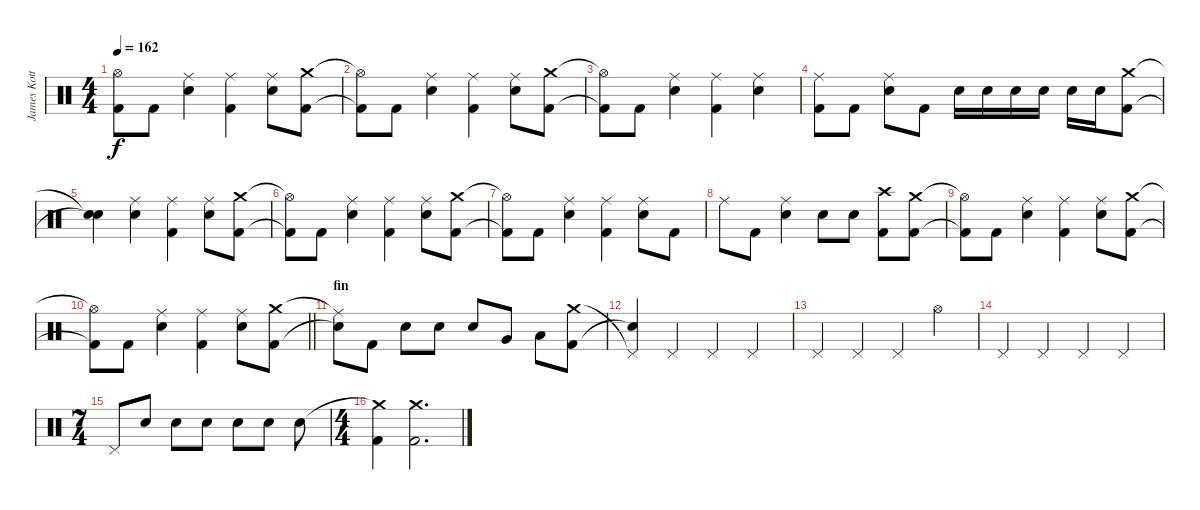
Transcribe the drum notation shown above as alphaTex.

\track ("James Kottak" "James Kott") {instrument percussion}
\staff {score}
\articulation defaults
\ts (4 4)
\tempo 162
\clef neutral
\ks c
("Hi-Hat (open)"{t} "Kick (hit) 2"{t}).8{dy f} "Kick (hit) 2".8 ("Ride (middle)" "Snare (hit) 2").4 ("Ride (middle)" "Kick (hit) 2").4 ("Ride (middle)" "Snare (hit) 2").8 ("Crash medium (hit)" "Kick (hit) 2").8 |
("Hi-Hat (open)"{t} "Kick (hit) 2"{t}).8 "Kick (hit) 2".8 ("Ride (middle)" "Snare (hit) 2").4 ("Ride (middle)" "Kick (hit) 2").4 ("Ride (middle)" "Snare (hit) 2").8 ("Crash medium (hit)" "Kick (hit) 2").8 |
("Hi-Hat (open)"{t} "Kick (hit) 2"{t}).8 "Kick (hit) 2".8 ("Ride (middle)" "Snare (hit) 2").4 ("Ride (middle)" "Kick (hit) 2").4 ("Ride (middle)" "Snare (hit) 2").4 |
("Ride (middle)" "Kick (hit) 2").8 "Kick (hit) 2".8 ("Ride (middle)" "Snare (hit) 2").8 "Kick (hit) 2".8 "Snare (hit) 2".16 "Snare (hit) 2".16 "Snare (hit) 2".16 "Snare (hit) 2".16 "Snare (hit) 2".16 "Snare (hit) 2".16 ("Kick (hit) 2" "Crash medium (hit)").8 |
("Snare (hit)"{t} "Snare (hit)"{t}).4 ("Ride (middle)" "Snare (hit) 2").4 ("Ride (middle)" "Kick (hit) 2").4 ("Ride (middle)" "Snare (hit) 2").8 ("Crash medium (hit)" "Kick (hit) 2").8 |
("Hi-Hat (open)"{t} "Kick (hit) 2"{t}).8 "Kick (hit) 2".8 ("Ride (middle)" "Snare (hit) 2").4 ("Ride (middle)" "Kick (hit) 2").4 ("Ride (middle)" "Snare (hit) 2").8 ("Crash medium (hit)" "Kick (hit) 2").8 |
("Hi-Hat (open)"{t} "Kick (hit) 2"{t}).8 "Kick (hit) 2".8 ("Ride (middle)" "Snare (hit) 2").4 ("Ride (middle)" "Kick (hit) 2").4 ("Ride (middle)" "Snare (hit) 2").8 "Kick (hit) 2".8 |
"Ride (middle)".8 "Kick (hit) 2".8 ("Ride (middle)" "Snare (hit) 2").4 "Snare (hit) 2".8 "Snare (hit) 2".8 ("Kick (hit) 2" "Crash high (hit)").8 ("Crash medium (hit)" "Kick (hit) 2").8 |
("Hi-Hat (open)"{t} "Kick (hit) 2"{t}).8 "Kick (hit) 2".8 ("Ride (middle)" "Snare (hit) 2").4 ("Ride (middle)" "Kick (hit) 2").4 ("Ride (middle)" "Snare (hit) 2").8 ("Crash medium (hit)" "Kick (hit) 2").8 |
\barLineRight lightlight
("Hi-Hat (open)"{t} "Kick (hit) 2"{t}).8 "Kick (hit) 2".8 ("Ride (middle)" "Snare (hit) 2").4 ("Ride (middle)" "Kick (hit) 2").4 ("Ride (middle)" "Snare (hit) 2").8 ("Crash medium (hit)" "Kick (hit) 2").8 |
\section ("" "fin")
("Ride (middle)"{t} "Snare (hit)"{t}).8 "Kick (hit) 2".8 "Snare (hit) 2".8{bd 240} "Snare (hit) 2".8 "Snare (hit) 2".8 "Very Low Tom (hit)".8 "Low Floor Tom (hit)".8 ("Kick (hit) 2" "Crash medium (hit)").8 |
("Snare (hit)"{t} "Pedal Hi-Hat (hit)"{t}).4 "Pedal Hi-Hat (hit)".4 "Pedal Hi-Hat (hit)".4 "Pedal Hi-Hat (hit)".4 |
"Pedal Hi-Hat (hit)".4 "Pedal Hi-Hat (hit)".4 "Pedal Hi-Hat (hit)".4 "Hi-Hat (open)".4 |
"Pedal Hi-Hat (hit)".4 "Pedal Hi-Hat (hit)".4 "Pedal Hi-Hat (hit)".4 "Pedal Hi-Hat (hit)".4 |
\ts (7 4)
"Pedal Hi-Hat (hit)".8 "Snare (hit) 2".8 "Snare (hit) 2".8 "Snare (hit) 2".8 "Snare (hit) 2".8 "Snare (hit) 2".8 "Snare (hit) 2".8 |
\ts (4 4)
("Crash medium (hit)"{t} "Kick (hit) 2").4 ("Crash medium (hit)" "Kick (hit) 2").2{d}
